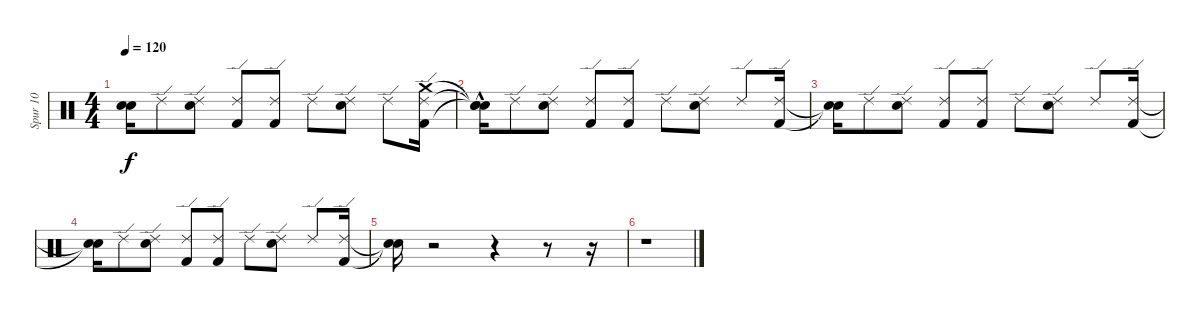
\track ("Spur 10" "Spur 10") {instrument percussion}
\staff {score}
\articulation defaults
\ts (4 4)
\tempo 120
\clef neutral
\ks c
("Snare (hit)"{t} "Snare (hit)"{t}).16{dy f} "Ride (edge) 2".8 ("Electric Snare (hit)" "Ride (edge) 2").8 ("Kick (hit) 2" "Ride (edge) 2").8 ("Kick (hit) 2" "Ride (edge) 2").8 "Ride (edge) 2".8 ("Electric Snare (hit)" "Ride (edge) 2").8 "Ride (edge) 2".8 ("Kick (hit) 2" "Ride (edge) 2" "Crash medium (hit)").16 |
("Snare (hit)"{t} "Snare (hit)"{t} "Snare (hit)"{hac t}).16 "Ride (edge) 2".8 ("Electric Snare (hit)" "Ride (edge) 2").8 ("Kick (hit) 2" "Ride (edge) 2").8 ("Kick (hit) 2" "Ride (edge) 2").8 "Ride (edge) 2".8 ("Electric Snare (hit)" "Ride (edge) 2").8 "Ride (edge) 2".8 ("Kick (hit) 2" "Ride (edge) 2").16 |
("Snare (hit)"{t} "Snare (hit)"{t}).16 "Ride (edge) 2".8 ("Electric Snare (hit)" "Ride (edge) 2").8 ("Kick (hit) 2" "Ride (edge) 2").8 ("Kick (hit) 2" "Ride (edge) 2").8 "Ride (edge) 2".8 ("Electric Snare (hit)" "Ride (edge) 2").8 "Ride (edge) 2".8 ("Kick (hit) 2" "Ride (edge) 2").16 |
("Snare (hit)"{t} "Snare (hit)"{t}).16 "Ride (edge) 2".8 ("Electric Snare (hit)" "Ride (edge) 2").8 ("Kick (hit) 2" "Ride (edge) 2").8 ("Kick (hit) 2" "Ride (edge) 2").8 "Ride (edge) 2".8 ("Electric Snare (hit)" "Ride (edge) 2").8 "Ride (edge) 2".8 ("Kick (hit) 2" "Ride (edge) 2").16 |
("Snare (hit)"{t} "Snare (hit)"{t}).16 r.2 r.4 r.8 r.16 |
r.1
